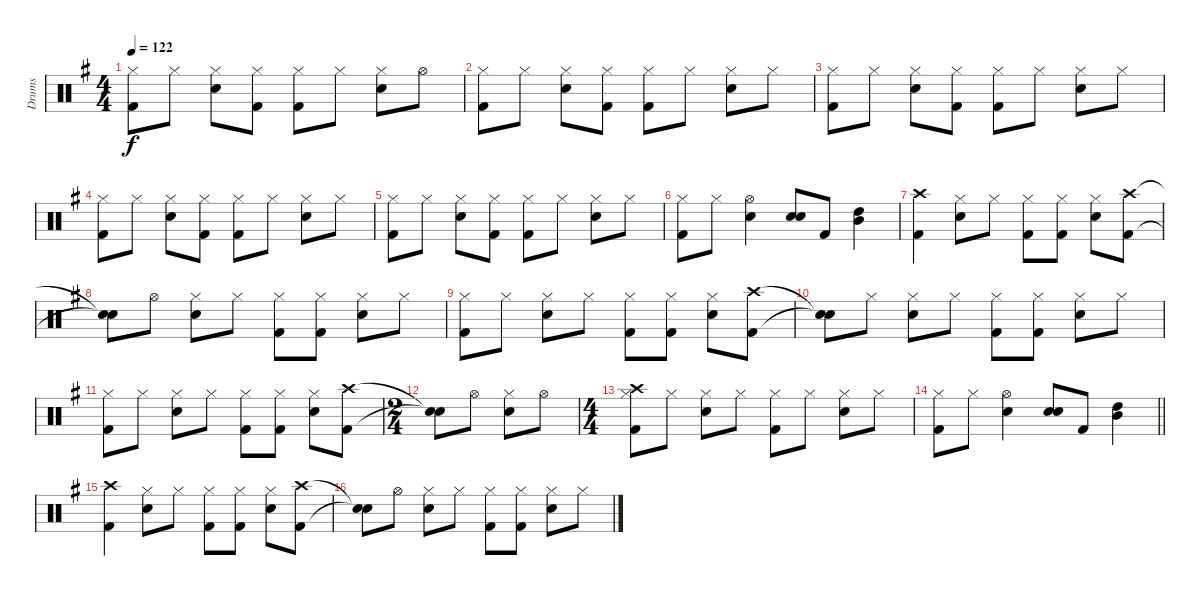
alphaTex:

\track ("Drums" "Drums") {instrument percussion}
\staff {score}
\articulation defaults
\ts (4 4)
\tempo 122
\clef neutral
\ks g
("Hi-Hat (closed)" "Kick (hit) 2").8{dy f} "Hi-Hat (closed)".8 ("Hi-Hat (closed)" "Electric Snare (hit)").8 ("Hi-Hat (closed)" "Kick (hit) 2").8 ("Hi-Hat (closed)" "Kick (hit) 2").8 "Hi-Hat (closed)".8 ("Hi-Hat (closed)" "Electric Snare (hit)").8 "Hi-Hat (open)".8 |
("Hi-Hat (closed)" "Kick (hit) 2").8 "Hi-Hat (closed)".8 ("Hi-Hat (closed)" "Electric Snare (hit)").8 ("Hi-Hat (closed)" "Kick (hit) 2").8 ("Hi-Hat (closed)" "Kick (hit) 2").8 "Hi-Hat (closed)".8 ("Hi-Hat (closed)" "Electric Snare (hit)").8 "Hi-Hat (closed)".8 |
("Hi-Hat (closed)" "Kick (hit) 2").8 "Hi-Hat (closed)".8 ("Hi-Hat (closed)" "Electric Snare (hit)").8 ("Hi-Hat (closed)" "Kick (hit) 2").8 ("Hi-Hat (closed)" "Kick (hit) 2").8 "Hi-Hat (closed)".8 ("Hi-Hat (closed)" "Electric Snare (hit)").8 "Hi-Hat (closed)".8 |
("Hi-Hat (closed)" "Kick (hit) 2").8 "Hi-Hat (closed)".8 ("Hi-Hat (closed)" "Electric Snare (hit)").8 ("Hi-Hat (closed)" "Kick (hit) 2").8 ("Hi-Hat (closed)" "Kick (hit) 2").8 "Hi-Hat (closed)".8 ("Hi-Hat (closed)" "Electric Snare (hit)").8 "Hi-Hat (closed)".8 |
("Hi-Hat (closed)" "Kick (hit) 2").8 "Hi-Hat (closed)".8 ("Hi-Hat (closed)" "Electric Snare (hit)").8 ("Hi-Hat (closed)" "Kick (hit) 2").8 ("Hi-Hat (closed)" "Kick (hit) 2").8 "Hi-Hat (closed)".8 ("Hi-Hat (closed)" "Electric Snare (hit)").8 "Hi-Hat (closed)".8 |
("Hi-Hat (closed)" "Kick (hit) 2").8 "Hi-Hat (closed)".8 ("Hi-Hat (open)" "Electric Snare (hit)").4 ("Snare (hit) 2" "Electric Snare (hit)").8 "Kick (hit) 2".8 ("Mid Tom (hit)" "High Tom (hit)").4 |
("Crash high (hit)" "Kick (hit) 2").4 ("Hi-Hat (closed)" "Electric Snare (hit)").8 "Hi-Hat (closed)".8 ("Hi-Hat (closed)" "Kick (hit) 2").8 ("Hi-Hat (closed)" "Kick (hit) 2").8 ("Hi-Hat (closed)" "Electric Snare (hit)").8 ("Crash high (hit)" "Kick (hit) 2").8 |
("Snare (hit)"{t} "Snare (hit)"{t}).8 "Hi-Hat (open)".8 ("Hi-Hat (closed)" "Electric Snare (hit)").8 "Hi-Hat (closed)".8 ("Hi-Hat (closed)" "Kick (hit) 2").8 ("Hi-Hat (closed)" "Kick (hit) 2").8 ("Hi-Hat (closed)" "Electric Snare (hit)").8 "Hi-Hat (closed)".8 |
("Hi-Hat (closed)" "Kick (hit) 2").8 "Hi-Hat (closed)".8 ("Hi-Hat (closed)" "Electric Snare (hit)").8 "Hi-Hat (closed)".8 ("Hi-Hat (closed)" "Kick (hit) 2").8 ("Hi-Hat (closed)" "Kick (hit) 2").8 ("Hi-Hat (closed)" "Electric Snare (hit)").8 ("Crash high (hit)" "Kick (hit) 2").8 |
("Snare (hit)"{t} "Snare (hit)"{t}).8 "Hi-Hat (closed)".8 ("Hi-Hat (closed)" "Electric Snare (hit)").8 "Hi-Hat (closed)".8 ("Hi-Hat (closed)" "Kick (hit) 2").8 ("Hi-Hat (closed)" "Kick (hit) 2").8 ("Hi-Hat (closed)" "Electric Snare (hit)").8 "Hi-Hat (closed)".8 |
("Hi-Hat (closed)" "Kick (hit) 2").8 "Hi-Hat (closed)".8 ("Hi-Hat (closed)" "Electric Snare (hit)").8 "Hi-Hat (closed)".8 ("Hi-Hat (closed)" "Kick (hit) 2").8 ("Hi-Hat (closed)" "Kick (hit) 2").8 ("Hi-Hat (closed)" "Electric Snare (hit)").8 ("Crash high (hit)" "Kick (hit) 2").8 |
\ts (2 4)
("Snare (hit)"{t} "Snare (hit)"{t}).8 "Hi-Hat (open)".8 ("Hi-Hat (closed)" "Electric Snare (hit)").8 "Hi-Hat (open)".8 |
\ts (4 4)
("Hi-Hat (closed)" "Crash high (hit)" "Kick (hit) 2").8 "Hi-Hat (closed)".8 ("Hi-Hat (closed)" "Electric Snare (hit)").8 "Hi-Hat (closed)".8 ("Hi-Hat (closed)" "Kick (hit) 2").8 "Hi-Hat (closed)".8 ("Hi-Hat (closed)" "Electric Snare (hit)").8 "Hi-Hat (closed)".8 |
\barLineRight lightlight
("Hi-Hat (closed)" "Kick (hit) 2").8 "Hi-Hat (closed)".8 ("Hi-Hat (open)" "Electric Snare (hit)").4 ("Snare (hit) 2" "Electric Snare (hit)").8 "Kick (hit) 2".8 ("Mid Tom (hit)" "High Tom (hit)").4 |
("Crash high (hit)" "Kick (hit) 2").4 ("Hi-Hat (closed)" "Electric Snare (hit)").8 "Hi-Hat (closed)".8 ("Hi-Hat (closed)" "Kick (hit) 2").8 ("Hi-Hat (closed)" "Kick (hit) 2").8 ("Hi-Hat (closed)" "Electric Snare (hit)").8 ("Crash high (hit)" "Kick (hit) 2").8 |
("Snare (hit)"{t} "Snare (hit)"{t}).8 "Hi-Hat (open)".8 ("Hi-Hat (closed)" "Electric Snare (hit)").8 "Hi-Hat (closed)".8 ("Hi-Hat (closed)" "Kick (hit) 2").8 ("Hi-Hat (closed)" "Kick (hit) 2").8 ("Hi-Hat (closed)" "Electric Snare (hit)").8 "Hi-Hat (closed)".8
